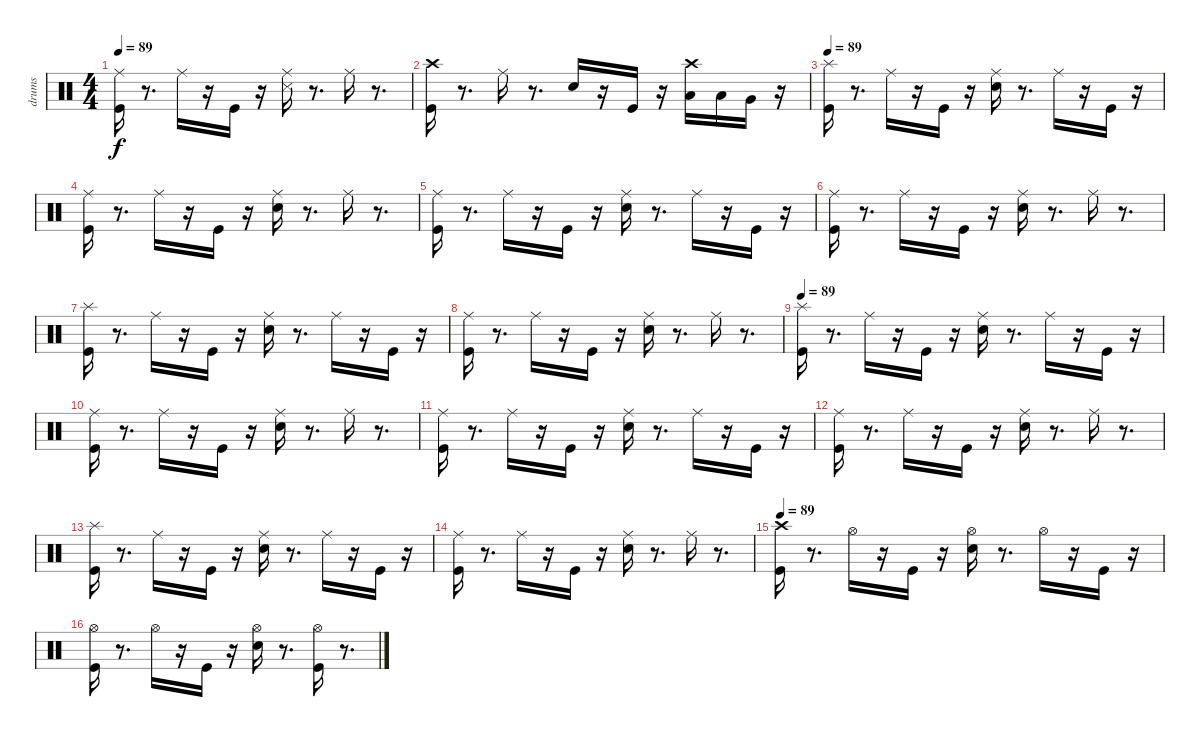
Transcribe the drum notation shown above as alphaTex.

\track ("drums" "drums") {instrument percussion}
\staff {score}
\articulation defaults
\ts (4 4)
\tempo 89
\clef neutral
\ks c
("Ride (middle)" "Kick (hit)").16{dy f} r.8{d} "Ride (middle)".16 r.16 "Kick (hit)".16 r.16 ("Snare (side stick) 3" "Ride (middle)").16 r.8{d} "Ride (middle)".16 r.8{d} |
("Crash high (hit)" "Kick (hit)").16 r.8{d} "Ride (middle)".16 r.8{d} "Electric Snare (hit)".16 r.16 "Kick (hit)".16 r.16 ("Crash high (hit)" "Low Tom (hit)").16 "Low Tom (hit)".16 "Very Low Tom (hit)".16 r.16 |
\tempo 89
("Splash (hit)" "Kick (hit)").16 r.8{d} "Ride (middle)".16 r.16 "Kick (hit)".16 r.16 ("Ride (middle)" "Electric Snare (hit)").16 r.8{d} "Ride (middle)".16 r.16 "Kick (hit)".16 r.16 |
("Ride (middle)" "Kick (hit)").16 r.8{d} "Ride (middle)".16 r.16 "Kick (hit)".16 r.16 ("Ride (middle)" "Electric Snare (hit)").16 r.8{d} "Ride (middle)".16 r.8{d} |
("Ride (middle)" "Kick (hit)").16 r.8{d} "Ride (middle)".16 r.16 "Kick (hit)".16 r.16 ("Electric Snare (hit)" "Ride (middle)").16 r.8{d} "Ride (middle)".16 r.16 "Kick (hit)".16 r.16 |
("Ride (middle)" "Kick (hit)").16 r.8{d} "Ride (middle)".16 r.16 "Kick (hit)".16 r.16 ("Ride (middle)" "Electric Snare (hit)").16 r.8{d} "Ride (middle)".16 r.8{d} |
("Splash (hit)" "Kick (hit)").16 r.8{d} "Ride (middle)".16 r.16 "Kick (hit)".16 r.16 ("Ride (middle)" "Snare (hit) 2").16 r.8{d} "Ride (middle)".16 r.16 "Kick (hit)".16 r.16 |
("Ride (middle)" "Kick (hit)").16 r.8{d} "Ride (middle)".16 r.16 "Kick (hit)".16 r.16 ("Ride (middle)" "Electric Snare (hit)").16 r.8{d} "Ride (middle)".16 r.8{d} |
\tempo 89
("Splash (hit)" "Kick (hit)").16 r.8{d} "Ride (middle)".16 r.16 "Kick (hit)".16 r.16 ("Ride (middle)" "Electric Snare (hit)").16 r.8{d} "Ride (middle)".16 r.16 "Kick (hit)".16 r.16 |
("Ride (middle)" "Kick (hit)").16 r.8{d} "Ride (middle)".16 r.16 "Kick (hit)".16 r.16 ("Ride (middle)" "Electric Snare (hit)").16 r.8{d} "Ride (middle)".16 r.8{d} |
("Ride (middle)" "Kick (hit)").16 r.8{d} "Ride (middle)".16 r.16 "Kick (hit)".16 r.16 ("Electric Snare (hit)" "Ride (middle)").16 r.8{d} "Ride (middle)".16 r.16 "Kick (hit)".16 r.16 |
("Ride (middle)" "Kick (hit)").16 r.8{d} "Ride (middle)".16 r.16 "Kick (hit)".16 r.16 ("Ride (middle)" "Electric Snare (hit)").16 r.8{d} "Ride (middle)".16 r.8{d} |
("Splash (hit)" "Kick (hit)").16 r.8{d} "Ride (middle)".16 r.16 "Kick (hit)".16 r.16 ("Ride (middle)" "Snare (hit) 2").16 r.8{d} "Ride (middle)".16 r.16 "Kick (hit)".16 r.16 |
("Ride (middle)" "Kick (hit)").16 r.8{d} "Ride (middle)".16 r.16 "Kick (hit)".16 r.16 ("Ride (middle)" "Electric Snare (hit)").16 r.8{d} "Ride (middle)".16 r.8{d} |
\tempo 89
("Crash high (hit)" "Kick (hit)").16 r.8{d} "Hi-Hat (open)".16 r.16 "Kick (hit)".16 r.16 ("Hi-Hat (open)" "Electric Snare (hit)").16 r.8{d} "Hi-Hat (open)".16 r.16 "Kick (hit)".16 r.16 |
("Hi-Hat (open)" "Kick (hit)").16 r.8{d} "Hi-Hat (open)".16 r.16 "Kick (hit)".16 r.16 ("Electric Snare (hit)" "Hi-Hat (open)").16 r.8{d} ("Kick (hit)" "Hi-Hat (open)").16 r.8{d}
